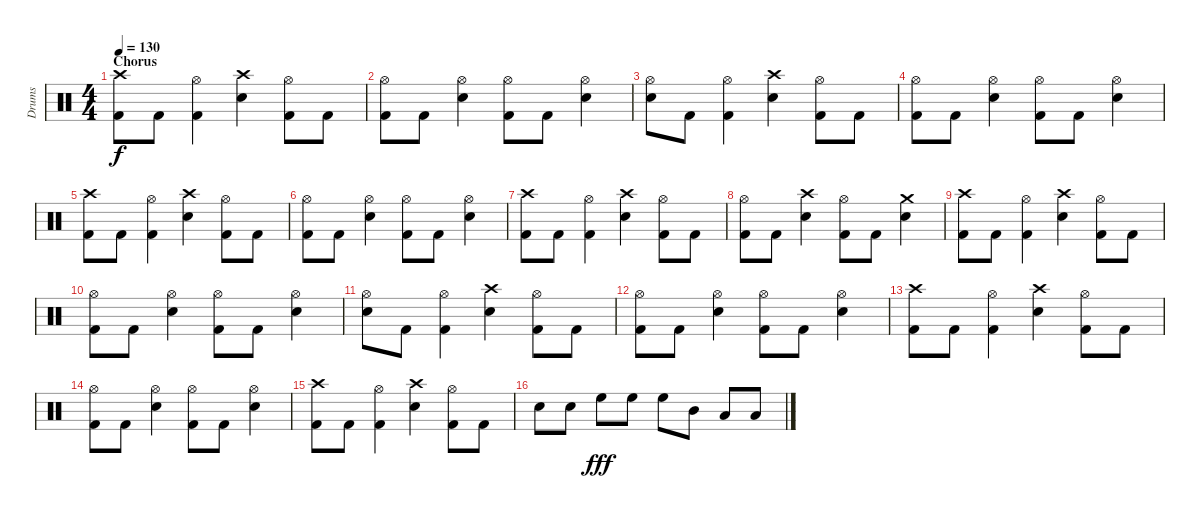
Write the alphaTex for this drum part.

\track ("Drums" "Drums") {instrument percussion}
\staff {score}
\articulation defaults
\ts (4 4)
\section ("" "Chorus")
\tempo 130
\clef neutral
\ks c
("Crash high (hit)" "Kick (hit) 2").8{dy f} "Kick (hit) 2".8 ("Hi-Hat (open)" "Kick (hit) 2").4 ("Crash high (hit)" "Snare (hit) 2").4 ("Hi-Hat (open)" "Kick (hit) 2").8 "Kick (hit) 2".8 |
("Hi-Hat (open)" "Kick (hit) 2").8 "Kick (hit) 2".8 ("Hi-Hat (open)" "Snare (hit) 2").4 ("Hi-Hat (open)" "Kick (hit) 2").8 "Kick (hit) 2".8 ("Hi-Hat (open)" "Snare (hit) 2").4 |
("Hi-Hat (open)" "Snare (hit) 2").8 "Kick (hit) 2".8 ("Hi-Hat (open)" "Kick (hit) 2").4 ("Crash high (hit)" "Snare (hit) 2").4 ("Hi-Hat (open)" "Kick (hit) 2").8 "Kick (hit) 2".8 |
("Hi-Hat (open)" "Kick (hit) 2").8 "Kick (hit) 2".8 ("Hi-Hat (open)" "Snare (hit) 2").4 ("Hi-Hat (open)" "Kick (hit) 2").8 "Kick (hit) 2".8 ("Hi-Hat (open)" "Snare (hit) 2").4 |
("Crash high (hit)" "Kick (hit) 2").8 "Kick (hit) 2".8 ("Hi-Hat (open)" "Kick (hit) 2").4 ("Crash high (hit)" "Snare (hit) 2").4 ("Hi-Hat (open)" "Kick (hit) 2").8 "Kick (hit) 2".8 |
("Hi-Hat (open)" "Kick (hit) 2").8 "Kick (hit) 2".8 ("Hi-Hat (open)" "Snare (hit) 2").4 ("Hi-Hat (open)" "Kick (hit) 2").8 "Kick (hit) 2".8 ("Hi-Hat (open)" "Snare (hit) 2").4 |
("Crash high (hit)" "Kick (hit) 2").8 "Kick (hit) 2".8 ("Hi-Hat (open)" "Kick (hit) 2").4 ("Crash high (hit)" "Snare (hit) 2").4 ("Hi-Hat (open)" "Kick (hit) 2").8 "Kick (hit) 2".8 |
("Hi-Hat (open)" "Kick (hit) 2").8 "Kick (hit) 2".8 ("Crash high (hit)" "Snare (hit) 2").4 ("Hi-Hat (open)" "Kick (hit) 2").8 "Kick (hit) 2".8 ("Crash medium (hit)" "Snare (hit) 2").4 |
("Crash high (hit)" "Kick (hit) 2").8 "Kick (hit) 2".8 ("Hi-Hat (open)" "Kick (hit) 2").4 ("Crash high (hit)" "Snare (hit) 2").4 ("Hi-Hat (open)" "Kick (hit) 2").8 "Kick (hit) 2".8 |
("Hi-Hat (open)" "Kick (hit) 2").8 "Kick (hit) 2".8 ("Hi-Hat (open)" "Snare (hit) 2").4 ("Hi-Hat (open)" "Kick (hit) 2").8 "Kick (hit) 2".8 ("Hi-Hat (open)" "Snare (hit) 2").4 |
("Hi-Hat (open)" "Snare (hit) 2").8 "Kick (hit) 2".8 ("Hi-Hat (open)" "Kick (hit) 2").4 ("Crash high (hit)" "Snare (hit) 2").4 ("Hi-Hat (open)" "Kick (hit) 2").8 "Kick (hit) 2".8 |
("Hi-Hat (open)" "Kick (hit) 2").8 "Kick (hit) 2".8 ("Hi-Hat (open)" "Snare (hit) 2").4 ("Hi-Hat (open)" "Kick (hit) 2").8 "Kick (hit) 2".8 ("Hi-Hat (open)" "Snare (hit) 2").4 |
("Crash high (hit)" "Kick (hit) 2").8 "Kick (hit) 2".8 ("Hi-Hat (open)" "Kick (hit) 2").4 ("Crash high (hit)" "Snare (hit) 2").4 ("Hi-Hat (open)" "Kick (hit) 2").8 "Kick (hit) 2".8 |
("Hi-Hat (open)" "Kick (hit) 2").8 "Kick (hit) 2".8 ("Hi-Hat (open)" "Snare (hit) 2").4 ("Hi-Hat (open)" "Kick (hit) 2").8 "Kick (hit) 2".8 ("Hi-Hat (open)" "Snare (hit) 2").4 |
("Crash high (hit)" "Kick (hit) 2").8 "Kick (hit) 2".8 ("Hi-Hat (open)" "Kick (hit) 2").4 ("Crash high (hit)" "Snare (hit) 2").4 ("Hi-Hat (open)" "Kick (hit) 2").8 "Kick (hit) 2".8 |
"Snare (hit) 2".8 "Snare (hit) 2".8 "High Floor Tom (hit)".8{dy fff} "High Floor Tom (hit)".8 "High Floor Tom (hit)".8 "Mid Tom (hit)".8 "Low Tom (hit)".8 "Low Floor Tom (hit)".8
